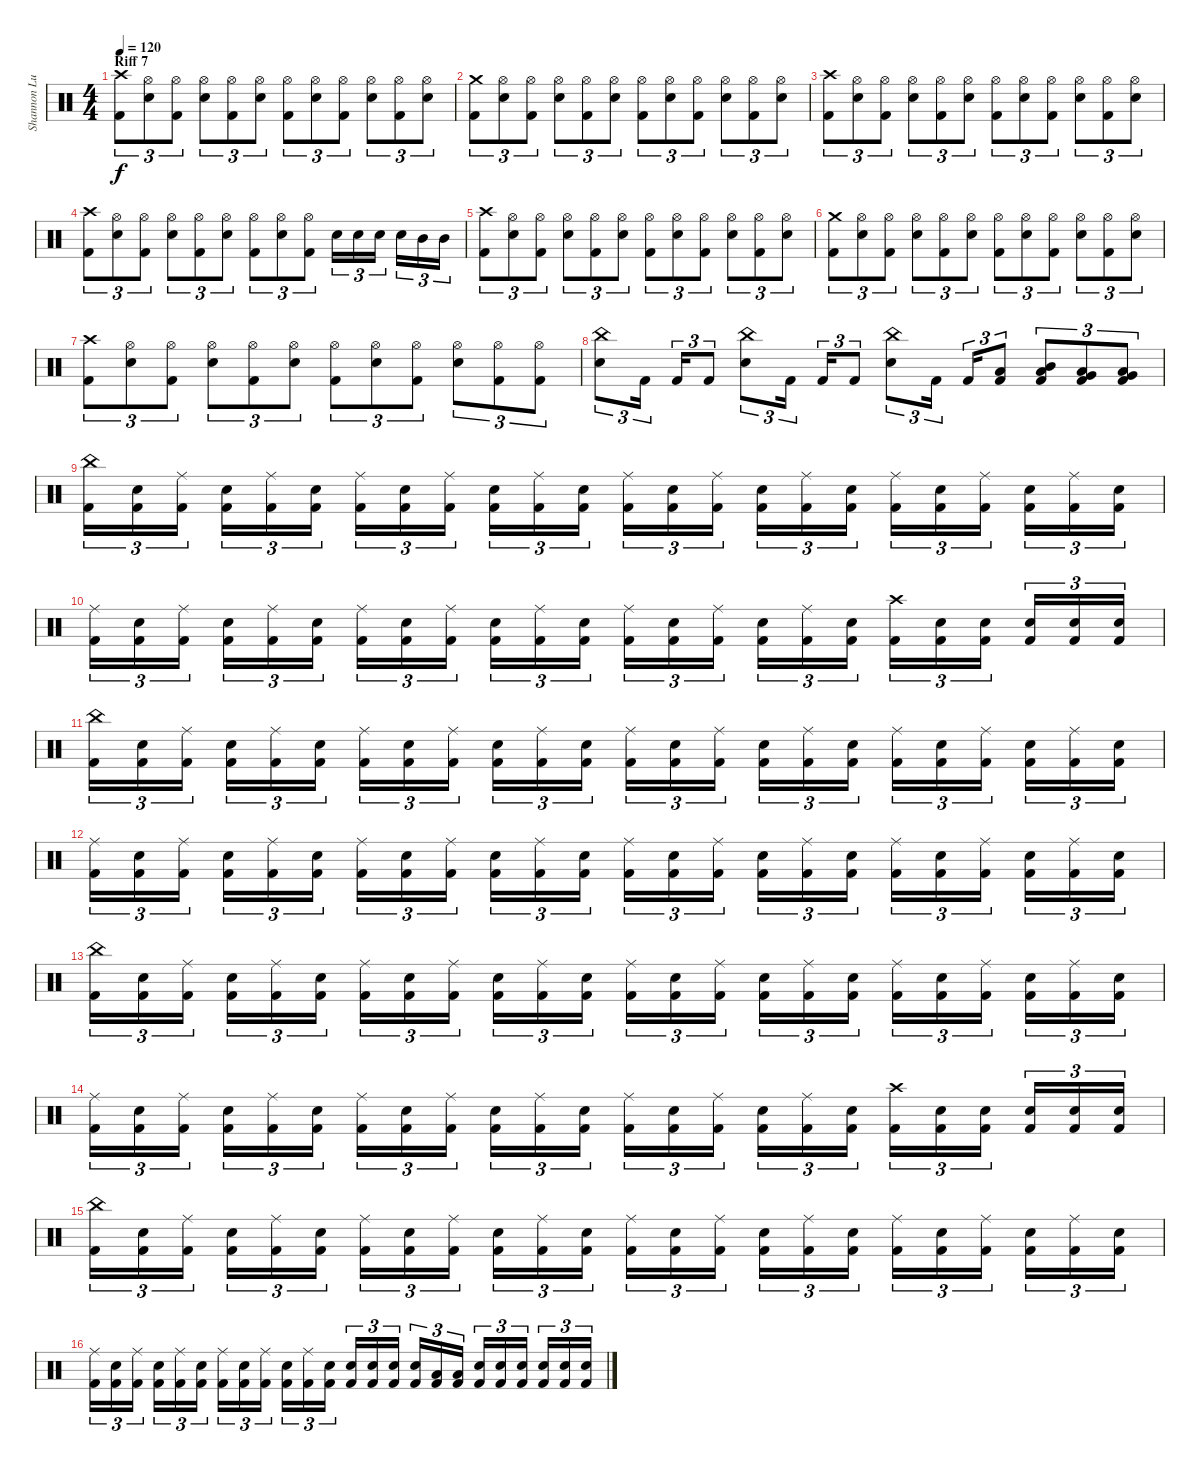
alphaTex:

\track ("Shannon Lucas (Drums)" "Shannon Lu") {instrument percussion}
\staff {score}
\articulation defaults
\ts (4 4)
\section ("" "Riff 7")
\tempo 120
\clef neutral
\ks c
("Crash high (hit)" "Kick (hit) 2").8{tu (3 2) dy f} ("Hi-Hat (open)" "Snare (hit) 2").8{tu (3 2)} ("Hi-Hat (open)" "Kick (hit) 2").8{tu (3 2)} ("Hi-Hat (open)" "Snare (hit) 2").8{tu (3 2)} ("Hi-Hat (open)" "Kick (hit) 2").8{tu (3 2)} ("Hi-Hat (open)" "Snare (hit) 2").8{tu (3 2)} ("Hi-Hat (open)" "Kick (hit) 2").8{tu (3 2)} ("Hi-Hat (open)" "Snare (hit) 2").8{tu (3 2)} ("Hi-Hat (open)" "Kick (hit) 2").8{tu (3 2)} ("Hi-Hat (open)" "Snare (hit) 2").8{tu (3 2)} ("Hi-Hat (open)" "Kick (hit) 2").8{tu (3 2)} ("Hi-Hat (open)" "Snare (hit) 2").8{tu (3 2)} |
("Crash medium (hit)" "Kick (hit) 2").8{tu (3 2)} ("Hi-Hat (open)" "Snare (hit) 2").8{tu (3 2)} ("Hi-Hat (open)" "Kick (hit) 2").8{tu (3 2)} ("Hi-Hat (open)" "Snare (hit) 2").8{tu (3 2)} ("Hi-Hat (open)" "Kick (hit) 2").8{tu (3 2)} ("Hi-Hat (open)" "Snare (hit) 2").8{tu (3 2)} ("Hi-Hat (open)" "Kick (hit) 2").8{tu (3 2)} ("Hi-Hat (open)" "Snare (hit) 2").8{tu (3 2)} ("Hi-Hat (open)" "Kick (hit) 2").8{tu (3 2)} ("Hi-Hat (open)" "Snare (hit) 2").8{tu (3 2)} ("Hi-Hat (open)" "Kick (hit) 2").8{tu (3 2)} ("Hi-Hat (open)" "Snare (hit) 2").8{tu (3 2)} |
("Crash high (hit)" "Kick (hit) 2").8{tu (3 2)} ("Hi-Hat (open)" "Snare (hit) 2").8{tu (3 2)} ("Hi-Hat (open)" "Kick (hit) 2").8{tu (3 2)} ("Hi-Hat (open)" "Snare (hit) 2").8{tu (3 2)} ("Hi-Hat (open)" "Kick (hit) 2").8{tu (3 2)} ("Hi-Hat (open)" "Snare (hit) 2").8{tu (3 2)} ("Hi-Hat (open)" "Kick (hit) 2").8{tu (3 2)} ("Hi-Hat (open)" "Snare (hit) 2").8{tu (3 2)} ("Hi-Hat (open)" "Kick (hit) 2").8{tu (3 2)} ("Hi-Hat (open)" "Snare (hit) 2").8{tu (3 2)} ("Hi-Hat (open)" "Kick (hit) 2").8{tu (3 2)} ("Hi-Hat (open)" "Snare (hit) 2").8{tu (3 2)} |
("Crash high (hit)" "Kick (hit) 2").8{tu (3 2)} ("Hi-Hat (open)" "Snare (hit) 2").8{tu (3 2)} ("Hi-Hat (open)" "Kick (hit) 2").8{tu (3 2)} ("Hi-Hat (open)" "Snare (hit) 2").8{tu (3 2)} ("Hi-Hat (open)" "Kick (hit) 2").8{tu (3 2)} ("Hi-Hat (open)" "Snare (hit) 2").8{tu (3 2)} ("Hi-Hat (open)" "Kick (hit) 2").8{tu (3 2)} ("Hi-Hat (open)" "Snare (hit) 2").8{tu (3 2)} ("Hi-Hat (open)" "Kick (hit) 2").8{tu (3 2)} "Snare (hit) 2".16{tu (3 2)} "Snare (hit) 2".16{tu (3 2)} "Snare (hit) 2".16{tu (3 2)} "Snare (hit) 2".16{tu (3 2)} "Mid Tom (hit)".16{tu (3 2)} "Mid Tom (hit)".16{tu (3 2)} |
("Crash high (hit)" "Kick (hit) 2").8{tu (3 2)} ("Hi-Hat (open)" "Snare (hit) 2").8{tu (3 2)} ("Hi-Hat (open)" "Kick (hit) 2").8{tu (3 2)} ("Hi-Hat (open)" "Snare (hit) 2").8{tu (3 2)} ("Hi-Hat (open)" "Kick (hit) 2").8{tu (3 2)} ("Hi-Hat (open)" "Snare (hit) 2").8{tu (3 2)} ("Hi-Hat (open)" "Kick (hit) 2").8{tu (3 2)} ("Hi-Hat (open)" "Snare (hit) 2").8{tu (3 2)} ("Hi-Hat (open)" "Kick (hit) 2").8{tu (3 2)} ("Hi-Hat (open)" "Snare (hit) 2").8{tu (3 2)} ("Hi-Hat (open)" "Kick (hit) 2").8{tu (3 2)} ("Hi-Hat (open)" "Snare (hit) 2").8{tu (3 2)} |
("Crash medium (hit)" "Kick (hit) 2").8{tu (3 2)} ("Hi-Hat (open)" "Snare (hit) 2").8{tu (3 2)} ("Hi-Hat (open)" "Kick (hit) 2").8{tu (3 2)} ("Hi-Hat (open)" "Snare (hit) 2").8{tu (3 2)} ("Hi-Hat (open)" "Kick (hit) 2").8{tu (3 2)} ("Hi-Hat (open)" "Snare (hit) 2").8{tu (3 2)} ("Hi-Hat (open)" "Kick (hit) 2").8{tu (3 2)} ("Hi-Hat (open)" "Snare (hit) 2").8{tu (3 2)} ("Hi-Hat (open)" "Kick (hit) 2").8{tu (3 2)} ("Hi-Hat (open)" "Snare (hit) 2").8{tu (3 2)} ("Hi-Hat (open)" "Kick (hit) 2").8{tu (3 2)} ("Hi-Hat (open)" "Snare (hit) 2").8{tu (3 2)} |
("Crash high (hit)" "Kick (hit) 2").8{tu (3 2)} ("Hi-Hat (open)" "Snare (hit) 2").8{tu (3 2)} ("Hi-Hat (open)" "Kick (hit) 2").8{tu (3 2)} ("Hi-Hat (open)" "Snare (hit) 2").8{tu (3 2)} ("Hi-Hat (open)" "Kick (hit) 2").8{tu (3 2)} ("Hi-Hat (open)" "Snare (hit) 2").8{tu (3 2)} ("Hi-Hat (open)" "Kick (hit) 2").8{tu (3 2)} ("Hi-Hat (open)" "Snare (hit) 2").8{tu (3 2)} ("Hi-Hat (open)" "Kick (hit) 2").8{tu (3 2)} ("Hi-Hat (open)" "Snare (hit) 2").8{tu (3 2)} ("Hi-Hat (open)" "Kick (hit) 2").8{tu (3 2)} ("Hi-Hat (open)" "Kick (hit) 2").8{tu (3 2)} |
("China (hit)" "Snare (hit) 2").8{tu (3 2)} "Kick (hit) 2".16{tu (3 2)} "Kick (hit) 2".16{tu (3 2)} "Kick (hit) 2".8{tu (3 2)} ("China (hit)" "Snare (hit) 2").8{tu (3 2)} "Kick (hit) 2".16{tu (3 2)} "Kick (hit) 2".16{tu (3 2)} "Kick (hit) 2".8{tu (3 2)} ("China (hit)" "Snare (hit) 2").8{tu (3 2)} "Kick (hit) 2".16{tu (3 2)} "Kick (hit) 2".16{tu (3 2)} ("Low Floor Tom (hit)" "Kick (hit) 2").8{tu (3 2)} ("Mid Tom (hit)" "Low Tom (hit)" "Kick (hit) 2").8{tu (3 2)} ("Very Low Tom (hit)" "Low Tom (hit)" "Kick (hit) 2").8{tu (3 2)} ("Low Floor Tom (hit)" "Very Low Tom (hit)" "Kick (hit) 2").8{tu (3 2)} |
("China (hit)" "Kick (hit) 2").16{tu (3 2)} ("Snare (hit) 2" "Kick (hit) 2").16{tu (3 2)} ("Ride (middle)" "Kick (hit) 2").16{tu (3 2)} ("Snare (hit) 2" "Kick (hit) 2").16{tu (3 2)} ("Ride (middle)" "Kick (hit) 2").16{tu (3 2)} ("Snare (hit) 2" "Kick (hit) 2").16{tu (3 2)} ("Ride (middle)" "Kick (hit) 2").16{tu (3 2)} ("Snare (hit) 2" "Kick (hit) 2").16{tu (3 2)} ("Ride (middle)" "Kick (hit) 2").16{tu (3 2)} ("Snare (hit) 2" "Kick (hit) 2").16{tu (3 2)} ("Ride (middle)" "Kick (hit) 2").16{tu (3 2)} ("Snare (hit) 2" "Kick (hit) 2").16{tu (3 2)} ("Ride (middle)" "Kick (hit) 2").16{tu (3 2)} ("Snare (hit) 2" "Kick (hit) 2").16{tu (3 2)} ("Ride (middle)" "Kick (hit) 2").16{tu (3 2)} ("Snare (hit) 2" "Kick (hit) 2").16{tu (3 2)} ("Ride (middle)" "Kick (hit) 2").16{tu (3 2)} ("Snare (hit) 2" "Kick (hit) 2").16{tu (3 2)} ("Ride (middle)" "Kick (hit) 2").16{tu (3 2)} ("Snare (hit) 2" "Kick (hit) 2").16{tu (3 2)} ("Ride (middle)" "Kick (hit) 2").16{tu (3 2)} ("Snare (hit) 2" "Kick (hit) 2").16{tu (3 2)} ("Ride (middle)" "Kick (hit) 2").16{tu (3 2)} ("Snare (hit) 2" "Kick (hit) 2").16{tu (3 2)} |
("Ride (middle)" "Kick (hit) 2").16{tu (3 2)} ("Snare (hit) 2" "Kick (hit) 2").16{tu (3 2)} ("Ride (middle)" "Kick (hit) 2").16{tu (3 2)} ("Snare (hit) 2" "Kick (hit) 2").16{tu (3 2)} ("Ride (middle)" "Kick (hit) 2").16{tu (3 2)} ("Snare (hit) 2" "Kick (hit) 2").16{tu (3 2)} ("Ride (middle)" "Kick (hit) 2").16{tu (3 2)} ("Snare (hit) 2" "Kick (hit) 2").16{tu (3 2)} ("Ride (middle)" "Kick (hit) 2").16{tu (3 2)} ("Snare (hit) 2" "Kick (hit) 2").16{tu (3 2)} ("Ride (middle)" "Kick (hit) 2").16{tu (3 2)} ("Snare (hit) 2" "Kick (hit) 2").16{tu (3 2)} ("Ride (middle)" "Kick (hit) 2").16{tu (3 2)} ("Snare (hit) 2" "Kick (hit) 2").16{tu (3 2)} ("Ride (middle)" "Kick (hit) 2").16{tu (3 2)} ("Snare (hit) 2" "Kick (hit) 2").16{tu (3 2)} ("Ride (middle)" "Kick (hit) 2").16{tu (3 2)} ("Snare (hit) 2" "Kick (hit) 2").16{tu (3 2)} ("Crash high (hit)" "Kick (hit) 2").16{tu (3 2)} ("Snare (hit) 2" "Kick (hit) 2").16{tu (3 2)} ("Snare (hit) 2" "Kick (hit) 2").16{tu (3 2)} ("Snare (hit) 2" "Kick (hit) 2").16{tu (3 2)} ("Snare (hit) 2" "Kick (hit) 2").16{tu (3 2)} ("Snare (hit) 2" "Kick (hit) 2").16{tu (3 2)} |
("China (hit)" "Kick (hit) 2").16{tu (3 2)} ("Snare (hit) 2" "Kick (hit) 2").16{tu (3 2)} ("Ride (middle)" "Kick (hit) 2").16{tu (3 2)} ("Snare (hit) 2" "Kick (hit) 2").16{tu (3 2)} ("Ride (middle)" "Kick (hit) 2").16{tu (3 2)} ("Snare (hit) 2" "Kick (hit) 2").16{tu (3 2)} ("Ride (middle)" "Kick (hit) 2").16{tu (3 2)} ("Snare (hit) 2" "Kick (hit) 2").16{tu (3 2)} ("Ride (middle)" "Kick (hit) 2").16{tu (3 2)} ("Snare (hit) 2" "Kick (hit) 2").16{tu (3 2)} ("Ride (middle)" "Kick (hit) 2").16{tu (3 2)} ("Snare (hit) 2" "Kick (hit) 2").16{tu (3 2)} ("Ride (middle)" "Kick (hit) 2").16{tu (3 2)} ("Snare (hit) 2" "Kick (hit) 2").16{tu (3 2)} ("Ride (middle)" "Kick (hit) 2").16{tu (3 2)} ("Snare (hit) 2" "Kick (hit) 2").16{tu (3 2)} ("Ride (middle)" "Kick (hit) 2").16{tu (3 2)} ("Snare (hit) 2" "Kick (hit) 2").16{tu (3 2)} ("Ride (middle)" "Kick (hit) 2").16{tu (3 2)} ("Snare (hit) 2" "Kick (hit) 2").16{tu (3 2)} ("Ride (middle)" "Kick (hit) 2").16{tu (3 2)} ("Snare (hit) 2" "Kick (hit) 2").16{tu (3 2)} ("Ride (middle)" "Kick (hit) 2").16{tu (3 2)} ("Snare (hit) 2" "Kick (hit) 2").16{tu (3 2)} |
("Ride (middle)" "Kick (hit) 2").16{tu (3 2)} ("Snare (hit) 2" "Kick (hit) 2").16{tu (3 2)} ("Ride (middle)" "Kick (hit) 2").16{tu (3 2)} ("Snare (hit) 2" "Kick (hit) 2").16{tu (3 2)} ("Ride (middle)" "Kick (hit) 2").16{tu (3 2)} ("Snare (hit) 2" "Kick (hit) 2").16{tu (3 2)} ("Ride (middle)" "Kick (hit) 2").16{tu (3 2)} ("Snare (hit) 2" "Kick (hit) 2").16{tu (3 2)} ("Ride (middle)" "Kick (hit) 2").16{tu (3 2)} ("Snare (hit) 2" "Kick (hit) 2").16{tu (3 2)} ("Ride (middle)" "Kick (hit) 2").16{tu (3 2)} ("Snare (hit) 2" "Kick (hit) 2").16{tu (3 2)} ("Ride (middle)" "Kick (hit) 2").16{tu (3 2)} ("Snare (hit) 2" "Kick (hit) 2").16{tu (3 2)} ("Ride (middle)" "Kick (hit) 2").16{tu (3 2)} ("Snare (hit) 2" "Kick (hit) 2").16{tu (3 2)} ("Ride (middle)" "Kick (hit) 2").16{tu (3 2)} ("Snare (hit) 2" "Kick (hit) 2").16{tu (3 2)} ("Ride (middle)" "Kick (hit) 2").16{tu (3 2)} ("Snare (hit) 2" "Kick (hit) 2").16{tu (3 2)} ("Ride (middle)" "Kick (hit) 2").16{tu (3 2)} ("Snare (hit) 2" "Kick (hit) 2").16{tu (3 2)} ("Ride (middle)" "Kick (hit) 2").16{tu (3 2)} ("Snare (hit) 2" "Kick (hit) 2").16{tu (3 2)} |
("China (hit)" "Kick (hit) 2").16{tu (3 2)} ("Snare (hit) 2" "Kick (hit) 2").16{tu (3 2)} ("Ride (middle)" "Kick (hit) 2").16{tu (3 2)} ("Snare (hit) 2" "Kick (hit) 2").16{tu (3 2)} ("Ride (middle)" "Kick (hit) 2").16{tu (3 2)} ("Snare (hit) 2" "Kick (hit) 2").16{tu (3 2)} ("Ride (middle)" "Kick (hit) 2").16{tu (3 2)} ("Snare (hit) 2" "Kick (hit) 2").16{tu (3 2)} ("Ride (middle)" "Kick (hit) 2").16{tu (3 2)} ("Snare (hit) 2" "Kick (hit) 2").16{tu (3 2)} ("Ride (middle)" "Kick (hit) 2").16{tu (3 2)} ("Snare (hit) 2" "Kick (hit) 2").16{tu (3 2)} ("Ride (middle)" "Kick (hit) 2").16{tu (3 2)} ("Snare (hit) 2" "Kick (hit) 2").16{tu (3 2)} ("Ride (middle)" "Kick (hit) 2").16{tu (3 2)} ("Snare (hit) 2" "Kick (hit) 2").16{tu (3 2)} ("Ride (middle)" "Kick (hit) 2").16{tu (3 2)} ("Snare (hit) 2" "Kick (hit) 2").16{tu (3 2)} ("Ride (middle)" "Kick (hit) 2").16{tu (3 2)} ("Snare (hit) 2" "Kick (hit) 2").16{tu (3 2)} ("Ride (middle)" "Kick (hit) 2").16{tu (3 2)} ("Snare (hit) 2" "Kick (hit) 2").16{tu (3 2)} ("Ride (middle)" "Kick (hit) 2").16{tu (3 2)} ("Snare (hit) 2" "Kick (hit) 2").16{tu (3 2)} |
("Ride (middle)" "Kick (hit) 2").16{tu (3 2)} ("Snare (hit) 2" "Kick (hit) 2").16{tu (3 2)} ("Ride (middle)" "Kick (hit) 2").16{tu (3 2)} ("Snare (hit) 2" "Kick (hit) 2").16{tu (3 2)} ("Ride (middle)" "Kick (hit) 2").16{tu (3 2)} ("Snare (hit) 2" "Kick (hit) 2").16{tu (3 2)} ("Ride (middle)" "Kick (hit) 2").16{tu (3 2)} ("Snare (hit) 2" "Kick (hit) 2").16{tu (3 2)} ("Ride (middle)" "Kick (hit) 2").16{tu (3 2)} ("Snare (hit) 2" "Kick (hit) 2").16{tu (3 2)} ("Ride (middle)" "Kick (hit) 2").16{tu (3 2)} ("Snare (hit) 2" "Kick (hit) 2").16{tu (3 2)} ("Ride (middle)" "Kick (hit) 2").16{tu (3 2)} ("Snare (hit) 2" "Kick (hit) 2").16{tu (3 2)} ("Ride (middle)" "Kick (hit) 2").16{tu (3 2)} ("Snare (hit) 2" "Kick (hit) 2").16{tu (3 2)} ("Ride (middle)" "Kick (hit) 2").16{tu (3 2)} ("Snare (hit) 2" "Kick (hit) 2").16{tu (3 2)} ("Crash high (hit)" "Kick (hit) 2").16{tu (3 2)} ("Snare (hit) 2" "Kick (hit) 2").16{tu (3 2)} ("Snare (hit) 2" "Kick (hit) 2").16{tu (3 2)} ("Snare (hit) 2" "Kick (hit) 2").16{tu (3 2)} ("Snare (hit) 2" "Kick (hit) 2").16{tu (3 2)} ("Snare (hit) 2" "Kick (hit) 2").16{tu (3 2)} |
("China (hit)" "Kick (hit) 2").16{tu (3 2)} ("Snare (hit) 2" "Kick (hit) 2").16{tu (3 2)} ("Ride (middle)" "Kick (hit) 2").16{tu (3 2)} ("Snare (hit) 2" "Kick (hit) 2").16{tu (3 2)} ("Ride (middle)" "Kick (hit) 2").16{tu (3 2)} ("Snare (hit) 2" "Kick (hit) 2").16{tu (3 2)} ("Ride (middle)" "Kick (hit) 2").16{tu (3 2)} ("Snare (hit) 2" "Kick (hit) 2").16{tu (3 2)} ("Ride (middle)" "Kick (hit) 2").16{tu (3 2)} ("Snare (hit) 2" "Kick (hit) 2").16{tu (3 2)} ("Ride (middle)" "Kick (hit) 2").16{tu (3 2)} ("Snare (hit) 2" "Kick (hit) 2").16{tu (3 2)} ("Ride (middle)" "Kick (hit) 2").16{tu (3 2)} ("Snare (hit) 2" "Kick (hit) 2").16{tu (3 2)} ("Ride (middle)" "Kick (hit) 2").16{tu (3 2)} ("Snare (hit) 2" "Kick (hit) 2").16{tu (3 2)} ("Ride (middle)" "Kick (hit) 2").16{tu (3 2)} ("Snare (hit) 2" "Kick (hit) 2").16{tu (3 2)} ("Ride (middle)" "Kick (hit) 2").16{tu (3 2)} ("Snare (hit) 2" "Kick (hit) 2").16{tu (3 2)} ("Ride (middle)" "Kick (hit) 2").16{tu (3 2)} ("Snare (hit) 2" "Kick (hit) 2").16{tu (3 2)} ("Ride (middle)" "Kick (hit) 2").16{tu (3 2)} ("Snare (hit) 2" "Kick (hit) 2").16{tu (3 2)} |
("Ride (middle)" "Kick (hit) 2").16{tu (3 2)} ("Snare (hit) 2" "Kick (hit) 2").16{tu (3 2)} ("Ride (middle)" "Kick (hit) 2").16{tu (3 2)} ("Snare (hit) 2" "Kick (hit) 2").16{tu (3 2)} ("Ride (middle)" "Kick (hit) 2").16{tu (3 2)} ("Snare (hit) 2" "Kick (hit) 2").16{tu (3 2)} ("Ride (middle)" "Kick (hit) 2").16{tu (3 2)} ("Snare (hit) 2" "Kick (hit) 2").16{tu (3 2)} ("Ride (middle)" "Kick (hit) 2").16{tu (3 2)} ("Snare (hit) 2" "Kick (hit) 2").16{tu (3 2)} ("Ride (middle)" "Kick (hit) 2").16{tu (3 2)} ("Snare (hit) 2" "Kick (hit) 2").16{tu (3 2)} ("Snare (hit) 2" "Kick (hit) 2").16{tu (3 2)} ("Snare (hit) 2" "Kick (hit) 2").16{tu (3 2)} ("Snare (hit) 2" "Kick (hit) 2").16{tu (3 2)} ("Snare (hit) 2" "Kick (hit) 2").16{tu (3 2)} ("Low Tom (hit)" "Kick (hit) 2").16{tu (3 2)} ("Low Tom (hit)" "Kick (hit) 2").16{tu (3 2)} ("Snare (hit) 2" "Kick (hit) 2").16{tu (3 2)} ("Snare (hit) 2" "Kick (hit) 2").16{tu (3 2)} ("Snare (hit) 2" "Kick (hit) 2").16{tu (3 2)} ("Snare (hit) 2" "Kick (hit) 2").16{tu (3 2)} ("Snare (hit) 2" "Kick (hit) 2").16{tu (3 2)} ("Snare (hit) 2" "Kick (hit) 2").16{tu (3 2)}
